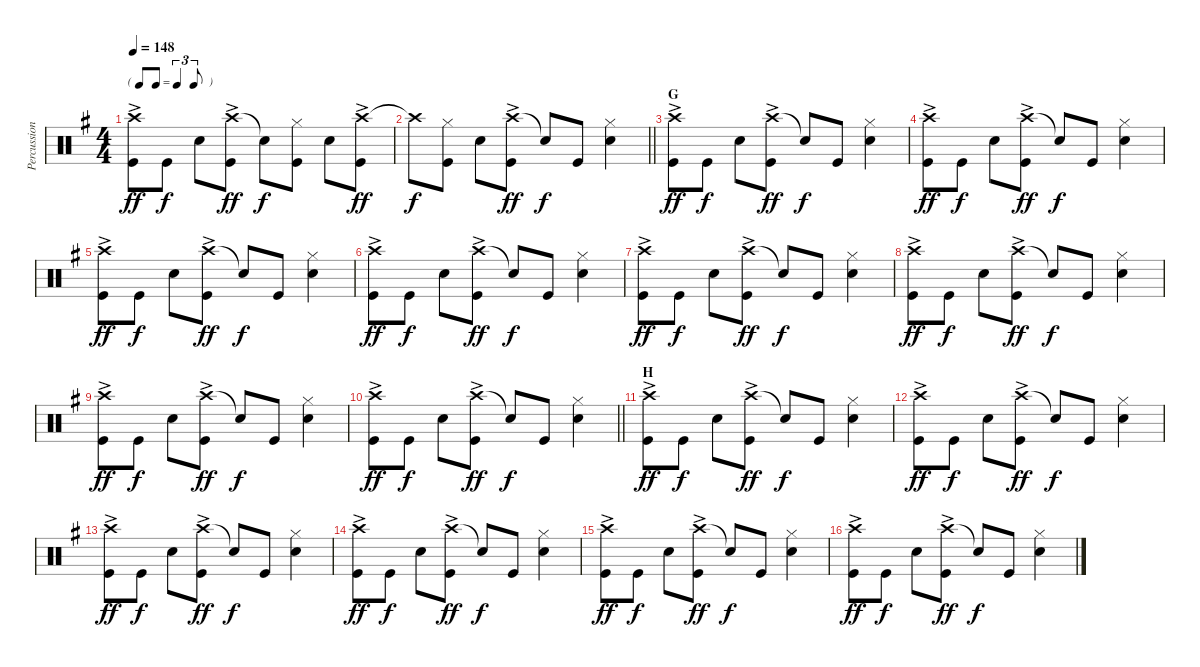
\track ("Percussion" "Percussion") {instrument percussion}
\staff {score}
\articulation defaults
\ts (4 4)
\tf triplet8th
\tempo 148
\clef neutral
\ks g
("Crash high (hit)"{ac} "Kick (hit)").8{dy ff} "Kick (hit)".8{dy f} "Snare (hit) 2".8 ("Crash high (hit)"{ac} "Kick (hit)").8{dy ff} "Snare (hit)"{t}.8{dy f} ("Hi-Hat (closed)" "Kick (hit)").8 "Snare (hit) 2".8 ("Crash high (hit)"{ac} "Kick (hit)").8{dy ff} |
\barLineRight lightlight "Crash high (hit)"{t}.8{dy f}
("Hi-Hat (closed)" "Kick (hit)").8 "Snare (hit) 2".8 ("Crash high (hit)"{ac} "Kick (hit)").8{dy ff} "Snare (hit)"{t}.8{dy f} "Kick (hit)".8 ("Hi-Hat (closed)" "Snare (hit) 2").4 |
\section ("" "G")
("Crash high (hit)"{ac} "Kick (hit)").8{dy ff} "Kick (hit)".8{dy f} "Snare (hit) 2".8 ("Crash high (hit)"{ac} "Kick (hit)").8{dy ff} "Snare (hit)"{t}.8{dy f} "Kick (hit)".8 ("Hi-Hat (closed)" "Snare (hit) 2").4 |
("Crash high (hit)"{ac} "Kick (hit)").8{dy ff} "Kick (hit)".8{dy f} "Snare (hit) 2".8 ("Crash high (hit)"{ac} "Kick (hit)").8{dy ff} "Snare (hit)"{t}.8{dy f} "Kick (hit)".8 ("Hi-Hat (closed)" "Snare (hit) 2").4 |
("Crash high (hit)"{ac} "Kick (hit)").8{dy ff} "Kick (hit)".8{dy f} "Snare (hit) 2".8 ("Crash high (hit)"{ac} "Kick (hit)").8{dy ff} "Snare (hit)"{t}.8{dy f} "Kick (hit)".8 ("Hi-Hat (closed)" "Snare (hit) 2").4 |
("Crash high (hit)"{ac} "Kick (hit)").8{dy ff} "Kick (hit)".8{dy f} "Snare (hit) 2".8 ("Crash high (hit)"{ac} "Kick (hit)").8{dy ff} "Snare (hit)"{t}.8{dy f} "Kick (hit)".8 ("Hi-Hat (closed)" "Snare (hit) 2").4 |
("Crash high (hit)"{ac} "Kick (hit)").8{dy ff} "Kick (hit)".8{dy f} "Snare (hit) 2".8 ("Crash high (hit)"{ac} "Kick (hit)").8{dy ff} "Snare (hit)"{t}.8{dy f} "Kick (hit)".8 ("Hi-Hat (closed)" "Snare (hit) 2").4 |
("Crash high (hit)"{ac} "Kick (hit)").8{dy ff} "Kick (hit)".8{dy f} "Snare (hit) 2".8 ("Crash high (hit)"{ac} "Kick (hit)").8{dy ff} "Snare (hit)"{t}.8{dy f} "Kick (hit)".8 ("Hi-Hat (closed)" "Snare (hit) 2").4 |
("Crash high (hit)"{ac} "Kick (hit)").8{dy ff} "Kick (hit)".8{dy f} "Snare (hit) 2".8 ("Crash high (hit)"{ac} "Kick (hit)").8{dy ff} "Snare (hit)"{t}.8{dy f} "Kick (hit)".8 ("Hi-Hat (closed)" "Snare (hit) 2").4 |
\barLineRight lightlight
("Crash high (hit)"{ac} "Kick (hit)").8{dy ff} "Kick (hit)".8{dy f} "Snare (hit) 2".8 ("Crash high (hit)"{ac} "Kick (hit)").8{dy ff} "Snare (hit)"{t}.8{dy f} "Kick (hit)".8 ("Hi-Hat (closed)" "Snare (hit) 2").4 |
\section ("" "H")
("Crash high (hit)"{ac} "Kick (hit)").8{dy ff} "Kick (hit)".8{dy f} "Snare (hit) 2".8 ("Crash high (hit)"{ac} "Kick (hit)").8{dy ff} "Snare (hit)"{t}.8{dy f} "Kick (hit)".8 ("Hi-Hat (closed)" "Snare (hit) 2").4 |
("Crash high (hit)"{ac} "Kick (hit)").8{dy ff} "Kick (hit)".8{dy f} "Snare (hit) 2".8 ("Crash high (hit)"{ac} "Kick (hit)").8{dy ff} "Snare (hit)"{t}.8{dy f} "Kick (hit)".8 ("Hi-Hat (closed)" "Snare (hit) 2").4 |
("Crash high (hit)"{ac} "Kick (hit)").8{dy ff} "Kick (hit)".8{dy f} "Snare (hit) 2".8 ("Crash high (hit)"{ac} "Kick (hit)").8{dy ff} "Snare (hit)"{t}.8{dy f} "Kick (hit)".8 ("Hi-Hat (closed)" "Snare (hit) 2").4 |
("Crash high (hit)"{ac} "Kick (hit)").8{dy ff} "Kick (hit)".8{dy f} "Snare (hit) 2".8 ("Crash high (hit)"{ac} "Kick (hit)").8{dy ff} "Snare (hit)"{t}.8{dy f} "Kick (hit)".8 ("Hi-Hat (closed)" "Snare (hit) 2").4 |
("Crash high (hit)"{ac} "Kick (hit)").8{dy ff} "Kick (hit)".8{dy f} "Snare (hit) 2".8 ("Crash high (hit)"{ac} "Kick (hit)").8{dy ff} "Snare (hit)"{t}.8{dy f} "Kick (hit)".8 ("Hi-Hat (closed)" "Snare (hit) 2").4 |
("Crash high (hit)"{ac} "Kick (hit)").8{dy ff} "Kick (hit)".8{dy f} "Snare (hit) 2".8 ("Crash high (hit)"{ac} "Kick (hit)").8{dy ff} "Snare (hit)"{t}.8{dy f} "Kick (hit)".8 ("Hi-Hat (closed)" "Snare (hit) 2").4
